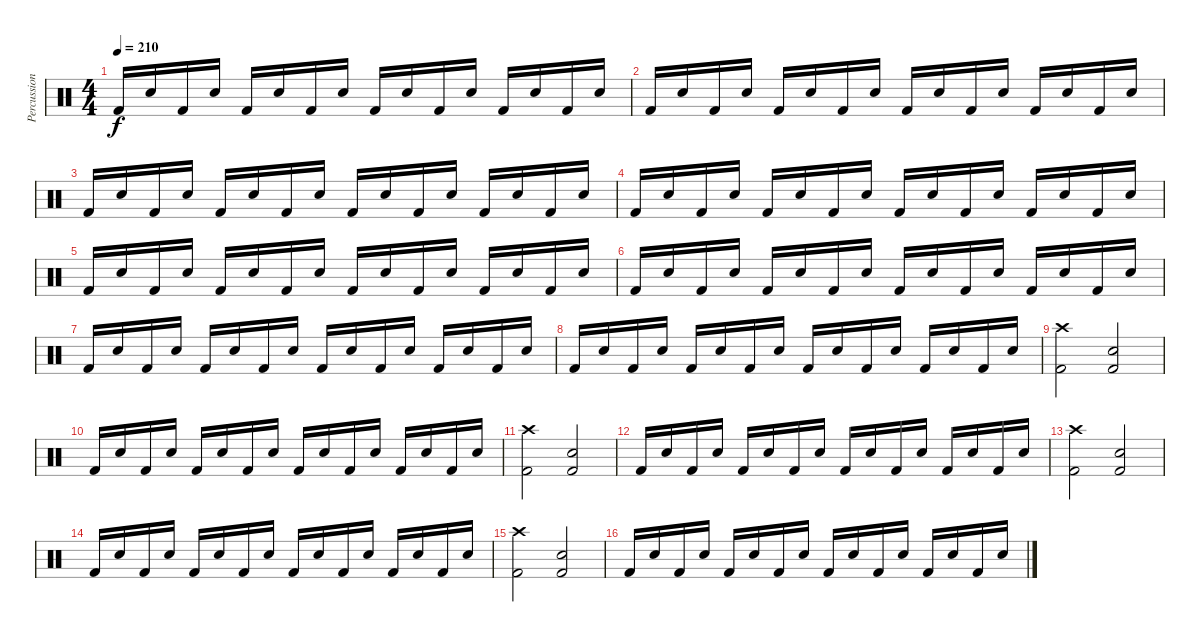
\track ("Percussion" "Percussion") {instrument percussion}
\staff {score}
\articulation defaults
\ts (4 4)
\tempo 210
\clef neutral
\ks c "Kick (hit) 2".16{dy f} "Electric Snare (hit)".16 "Kick (hit) 2".16 "Electric Snare (hit)".16 "Kick (hit) 2".16 "Electric Snare (hit)".16 "Kick (hit) 2".16 "Electric Snare (hit)".16 "Kick (hit) 2".16 "Electric Snare (hit)".16 "Kick (hit) 2".16 "Electric Snare (hit)".16 "Kick (hit) 2".16 "Electric Snare (hit)".16 "Kick (hit) 2".16 "Electric Snare (hit)".16
|
"Kick (hit) 2".16 "Electric Snare (hit)".16 "Kick (hit) 2".16 "Electric Snare (hit)".16 "Kick (hit) 2".16 "Electric Snare (hit)".16 "Kick (hit) 2".16 "Electric Snare (hit)".16 "Kick (hit) 2".16 "Electric Snare (hit)".16 "Kick (hit) 2".16 "Electric Snare (hit)".16 "Kick (hit) 2".16 "Electric Snare (hit)".16 "Kick (hit) 2".16 "Electric Snare (hit)".16 |
"Kick (hit) 2".16 "Electric Snare (hit)".16 "Kick (hit) 2".16 "Electric Snare (hit)".16 "Kick (hit) 2".16 "Electric Snare (hit)".16 "Kick (hit) 2".16 "Electric Snare (hit)".16 "Kick (hit) 2".16 "Electric Snare (hit)".16 "Kick (hit) 2".16 "Electric Snare (hit)".16 "Kick (hit) 2".16 "Electric Snare (hit)".16 "Kick (hit) 2".16 "Electric Snare (hit)".16 |
"Kick (hit) 2".16 "Electric Snare (hit)".16 "Kick (hit) 2".16 "Electric Snare (hit)".16 "Kick (hit) 2".16 "Electric Snare (hit)".16 "Kick (hit) 2".16 "Electric Snare (hit)".16 "Kick (hit) 2".16 "Electric Snare (hit)".16 "Kick (hit) 2".16 "Electric Snare (hit)".16 "Kick (hit) 2".16 "Electric Snare (hit)".16 "Kick (hit) 2".16 "Electric Snare (hit)".16 |
"Kick (hit) 2".16 "Electric Snare (hit)".16 "Kick (hit) 2".16 "Electric Snare (hit)".16 "Kick (hit) 2".16 "Electric Snare (hit)".16 "Kick (hit) 2".16 "Electric Snare (hit)".16 "Kick (hit) 2".16 "Electric Snare (hit)".16 "Kick (hit) 2".16 "Electric Snare (hit)".16 "Kick (hit) 2".16 "Electric Snare (hit)".16 "Kick (hit) 2".16 "Electric Snare (hit)".16 |
"Kick (hit) 2".16 "Electric Snare (hit)".16 "Kick (hit) 2".16 "Electric Snare (hit)".16 "Kick (hit) 2".16 "Electric Snare (hit)".16 "Kick (hit) 2".16 "Electric Snare (hit)".16 "Kick (hit) 2".16 "Electric Snare (hit)".16 "Kick (hit) 2".16 "Electric Snare (hit)".16 "Kick (hit) 2".16 "Electric Snare (hit)".16 "Kick (hit) 2".16 "Electric Snare (hit)".16 |
"Kick (hit) 2".16 "Electric Snare (hit)".16 "Kick (hit) 2".16 "Electric Snare (hit)".16 "Kick (hit) 2".16 "Electric Snare (hit)".16 "Kick (hit) 2".16 "Electric Snare (hit)".16 "Kick (hit) 2".16 "Electric Snare (hit)".16 "Kick (hit) 2".16 "Electric Snare (hit)".16 "Kick (hit) 2".16 "Electric Snare (hit)".16 "Kick (hit) 2".16 "Electric Snare (hit)".16 |
"Kick (hit) 2".16 "Electric Snare (hit)".16 "Kick (hit) 2".16 "Electric Snare (hit)".16 "Kick (hit) 2".16 "Electric Snare (hit)".16 "Kick (hit) 2".16 "Electric Snare (hit)".16 "Kick (hit) 2".16 "Electric Snare (hit)".16 "Kick (hit) 2".16 "Electric Snare (hit)".16 "Kick (hit) 2".16 "Electric Snare (hit)".16 "Kick (hit) 2".16 "Electric Snare (hit)".16 |
("Crash high (hit)" "Kick (hit) 2").2 ("Electric Snare (hit)" "Kick (hit) 2").2 |
"Kick (hit) 2".16 "Electric Snare (hit)".16 "Kick (hit) 2".16 "Electric Snare (hit)".16 "Kick (hit) 2".16 "Electric Snare (hit)".16 "Kick (hit) 2".16 "Electric Snare (hit)".16 "Kick (hit) 2".16 "Electric Snare (hit)".16 "Kick (hit) 2".16 "Electric Snare (hit)".16 "Kick (hit) 2".16 "Electric Snare (hit)".16 "Kick (hit) 2".16 "Electric Snare (hit)".16 |
("Crash high (hit)" "Kick (hit) 2").2 ("Electric Snare (hit)" "Kick (hit) 2").2 |
"Kick (hit) 2".16 "Electric Snare (hit)".16 "Kick (hit) 2".16 "Electric Snare (hit)".16 "Kick (hit) 2".16 "Electric Snare (hit)".16 "Kick (hit) 2".16 "Electric Snare (hit)".16 "Kick (hit) 2".16 "Electric Snare (hit)".16 "Kick (hit) 2".16 "Electric Snare (hit)".16 "Kick (hit) 2".16 "Electric Snare (hit)".16 "Kick (hit) 2".16 "Electric Snare (hit)".16 |
("Crash high (hit)" "Kick (hit) 2").2 ("Electric Snare (hit)" "Kick (hit) 2").2 |
"Kick (hit) 2".16 "Electric Snare (hit)".16 "Kick (hit) 2".16 "Electric Snare (hit)".16 "Kick (hit) 2".16 "Electric Snare (hit)".16 "Kick (hit) 2".16 "Electric Snare (hit)".16 "Kick (hit) 2".16 "Electric Snare (hit)".16 "Kick (hit) 2".16 "Electric Snare (hit)".16 "Kick (hit) 2".16 "Electric Snare (hit)".16 "Kick (hit) 2".16 "Electric Snare (hit)".16 |
("Crash high (hit)" "Kick (hit) 2").2 ("Electric Snare (hit)" "Kick (hit) 2").2 |
"Kick (hit) 2".16 "Electric Snare (hit)".16 "Kick (hit) 2".16 "Electric Snare (hit)".16 "Kick (hit) 2".16 "Electric Snare (hit)".16 "Kick (hit) 2".16 "Electric Snare (hit)".16 "Kick (hit) 2".16 "Electric Snare (hit)".16 "Kick (hit) 2".16 "Electric Snare (hit)".16 "Kick (hit) 2".16 "Electric Snare (hit)".16 "Kick (hit) 2".16 "Electric Snare (hit)".16
